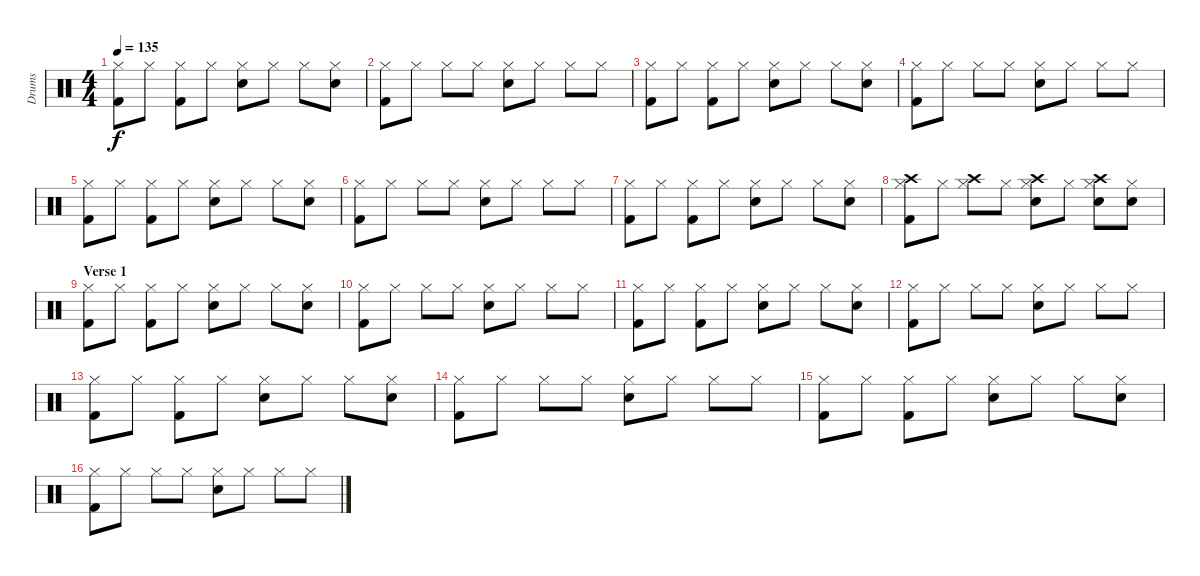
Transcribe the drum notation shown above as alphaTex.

\track ("Drums" "Drums") {instrument percussion}
\staff {score}
\articulation defaults
\ts (4 4)
\tempo 135
\clef neutral
\ks c
("Kick (hit) 2" "Hi-Hat (closed)").8{dy f} "Hi-Hat (closed)".8 ("Kick (hit) 2" "Hi-Hat (closed)").8 "Hi-Hat (closed)".8 ("Snare (hit) 2" "Hi-Hat (closed)").8 "Hi-Hat (closed)".8 "Hi-Hat (closed)".8 ("Snare (hit) 2" "Hi-Hat (closed)").8 |
("Kick (hit) 2" "Hi-Hat (closed)").8 "Hi-Hat (closed)".8 "Hi-Hat (closed)".8 "Hi-Hat (closed)".8 ("Snare (hit) 2" "Hi-Hat (closed)").8 "Hi-Hat (closed)".8 "Hi-Hat (closed)".8 "Hi-Hat (closed)".8 |
("Kick (hit) 2" "Hi-Hat (closed)").8 "Hi-Hat (closed)".8 ("Kick (hit) 2" "Hi-Hat (closed)").8 "Hi-Hat (closed)".8 ("Snare (hit) 2" "Hi-Hat (closed)").8 "Hi-Hat (closed)".8 "Hi-Hat (closed)".8 ("Snare (hit) 2" "Hi-Hat (closed)").8 |
("Kick (hit) 2" "Hi-Hat (closed)").8 "Hi-Hat (closed)".8 "Hi-Hat (closed)".8 "Hi-Hat (closed)".8 ("Snare (hit) 2" "Hi-Hat (closed)").8 "Hi-Hat (closed)".8 "Hi-Hat (closed)".8 "Hi-Hat (closed)".8 |
("Kick (hit) 2" "Hi-Hat (closed)").8 "Hi-Hat (closed)".8 ("Kick (hit) 2" "Hi-Hat (closed)").8 "Hi-Hat (closed)".8 ("Snare (hit) 2" "Hi-Hat (closed)").8 "Hi-Hat (closed)".8 "Hi-Hat (closed)".8 ("Snare (hit) 2" "Hi-Hat (closed)").8 |
("Kick (hit) 2" "Hi-Hat (closed)").8 "Hi-Hat (closed)".8 "Hi-Hat (closed)".8 "Hi-Hat (closed)".8 ("Snare (hit) 2" "Hi-Hat (closed)").8 "Hi-Hat (closed)".8 "Hi-Hat (closed)".8 "Hi-Hat (closed)".8 |
("Kick (hit) 2" "Hi-Hat (closed)").8 "Hi-Hat (closed)".8 ("Kick (hit) 2" "Hi-Hat (closed)").8 "Hi-Hat (closed)".8 ("Snare (hit) 2" "Hi-Hat (closed)").8 "Hi-Hat (closed)".8 "Hi-Hat (closed)".8 ("Snare (hit) 2" "Hi-Hat (closed)").8 |
("Kick (hit) 2" "Hi-Hat (closed)" "Crash high (hit)").8 "Hi-Hat (closed)".8 ("Hi-Hat (closed)" "Crash high (hit)").8 "Hi-Hat (closed)".8 ("Snare (hit) 2" "Hi-Hat (closed)" "Crash high (hit)").8 "Hi-Hat (closed)".8 ("Snare (hit) 2" "Hi-Hat (closed)" "Crash high (hit)").8 ("Snare (hit) 2" "Hi-Hat (closed)").8 |
\section ("" "Verse 1")
("Kick (hit) 2" "Hi-Hat (closed)").8 "Hi-Hat (closed)".8 ("Kick (hit) 2" "Hi-Hat (closed)").8 "Hi-Hat (closed)".8 ("Snare (hit) 2" "Hi-Hat (closed)").8 "Hi-Hat (closed)".8 "Hi-Hat (closed)".8 ("Snare (hit) 2" "Hi-Hat (closed)").8 |
("Kick (hit) 2" "Hi-Hat (closed)").8 "Hi-Hat (closed)".8 "Hi-Hat (closed)".8 "Hi-Hat (closed)".8 ("Snare (hit) 2" "Hi-Hat (closed)").8 "Hi-Hat (closed)".8 "Hi-Hat (closed)".8 "Hi-Hat (closed)".8 |
("Kick (hit) 2" "Hi-Hat (closed)").8 "Hi-Hat (closed)".8 ("Kick (hit) 2" "Hi-Hat (closed)").8 "Hi-Hat (closed)".8 ("Snare (hit) 2" "Hi-Hat (closed)").8 "Hi-Hat (closed)".8 "Hi-Hat (closed)".8 ("Snare (hit) 2" "Hi-Hat (closed)").8 |
("Kick (hit) 2" "Hi-Hat (closed)").8 "Hi-Hat (closed)".8 "Hi-Hat (closed)".8 "Hi-Hat (closed)".8 ("Snare (hit) 2" "Hi-Hat (closed)").8 "Hi-Hat (closed)".8 "Hi-Hat (closed)".8 "Hi-Hat (closed)".8 |
("Kick (hit) 2" "Hi-Hat (closed)").8 "Hi-Hat (closed)".8 ("Kick (hit) 2" "Hi-Hat (closed)").8 "Hi-Hat (closed)".8 ("Snare (hit) 2" "Hi-Hat (closed)").8 "Hi-Hat (closed)".8 "Hi-Hat (closed)".8 ("Snare (hit) 2" "Hi-Hat (closed)").8 |
("Kick (hit) 2" "Hi-Hat (closed)").8 "Hi-Hat (closed)".8 "Hi-Hat (closed)".8 "Hi-Hat (closed)".8 ("Snare (hit) 2" "Hi-Hat (closed)").8 "Hi-Hat (closed)".8 "Hi-Hat (closed)".8 "Hi-Hat (closed)".8 |
("Kick (hit) 2" "Hi-Hat (closed)").8 "Hi-Hat (closed)".8 ("Kick (hit) 2" "Hi-Hat (closed)").8 "Hi-Hat (closed)".8 ("Snare (hit) 2" "Hi-Hat (closed)").8 "Hi-Hat (closed)".8 "Hi-Hat (closed)".8 ("Snare (hit) 2" "Hi-Hat (closed)").8 |
("Kick (hit) 2" "Hi-Hat (closed)").8 "Hi-Hat (closed)".8 "Hi-Hat (closed)".8 "Hi-Hat (closed)".8 ("Snare (hit) 2" "Hi-Hat (closed)").8 "Hi-Hat (closed)".8 "Hi-Hat (closed)".8 "Hi-Hat (closed)".8
